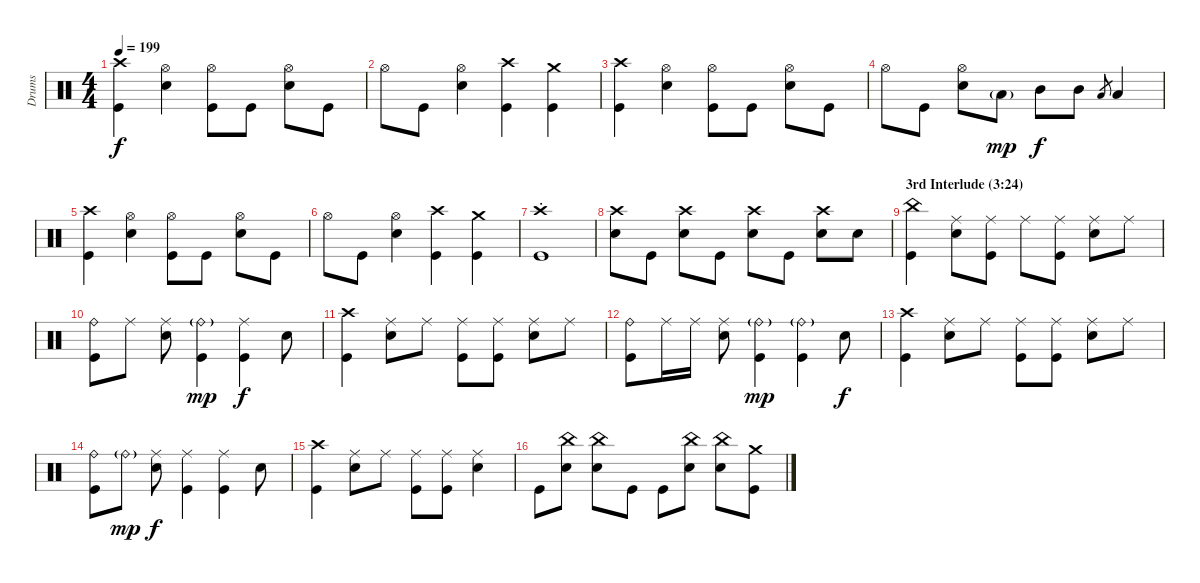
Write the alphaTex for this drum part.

\track ("Drums" "Drums") {instrument percussion}
\staff {score}
\articulation defaults
\ts (4 4)
\tempo 199
\clef neutral
\ks c
("Crash high (hit)" "Kick (hit)").4{dy f} ("Hi-Hat (open)" "Snare (hit) 2").4 ("Hi-Hat (open)" "Kick (hit)").8 "Kick (hit)".8 ("Hi-Hat (open)" "Snare (hit) 2").8 "Kick (hit)".8 |
"Hi-Hat (open)".8 "Kick (hit)".8 ("Hi-Hat (open)" "Snare (hit) 2").4 ("Crash high (hit)" "Kick (hit)").4 ("Crash medium (hit)" "Kick (hit)").4 |
("Crash high (hit)" "Kick (hit)").4 ("Hi-Hat (open)" "Snare (hit) 2").4 ("Hi-Hat (open)" "Kick (hit)").8 "Kick (hit)".8 ("Hi-Hat (open)" "Snare (hit) 2").8 "Kick (hit)".8 |
"Hi-Hat (open)".8 "Kick (hit)".8 ("Hi-Hat (open)" "Snare (hit) 2").8 "Low Tom (hit)"{g}.8{dy mp} "Mid Tom (hit)".8{dy f} "Mid Tom (hit)".8 "Low Tom (hit)".8{gr} "Low Tom (hit)".4 |
("Crash high (hit)" "Kick (hit)").4 ("Hi-Hat (open)" "Snare (hit) 2").4 ("Hi-Hat (open)" "Kick (hit)").8 "Kick (hit)".8 ("Hi-Hat (open)" "Snare (hit) 2").8 "Kick (hit)".8 |
"Hi-Hat (open)".8 "Kick (hit)".8 ("Hi-Hat (open)" "Snare (hit) 2").4 ("Crash high (hit)" "Kick (hit)").4 ("Crash medium (hit)" "Kick (hit)").4 |
("Crash high (hit)"{st} "Kick (hit)").1 |
("Crash high (hit)" "Snare (hit) 2").8 "Kick (hit)".8 ("Crash high (hit)" "Snare (hit) 2").8 "Kick (hit)".8 ("Crash high (hit)" "Snare (hit) 2").8 "Kick (hit)".8 ("Crash high (hit)" "Snare (hit) 2").8 "Snare (hit) 2".8 |
\section ("" "3rd Interlude (3:24)")
("China (hit)" "Kick (hit)").4 ("Ride (middle)" "Snare (hit) 2").8 ("Ride (middle)" "Kick (hit)").8 "Ride (middle)".8 ("Ride (middle)" "Kick (hit)").8 ("Ride (middle)" "Snare (hit) 2").8 "Ride (middle)".8 |
("Ride (bell)" "Kick (hit)").8 "Ride (middle)".8 ("Ride (middle)" "Snare (hit) 2").8 ("Ride (bell)"{g} "Kick (hit)").4{dy mp} ("Ride (middle)" "Kick (hit)").4{dy f} "Snare (hit) 2".8 |
("Crash high (hit)" "Kick (hit)").4 ("Ride (middle)" "Snare (hit) 2").8 "Ride (middle)".8 ("Ride (middle)" "Kick (hit)").8 ("Ride (middle)" "Kick (hit)").8 ("Ride (middle)" "Snare (hit) 2").8 "Ride (middle)".8 |
("Ride (bell)" "Kick (hit)").8 "Ride (middle)".16 "Ride (middle)".16 ("Ride (middle)" "Snare (hit) 2").8 ("Ride (bell)"{g} "Kick (hit)").4{dy mp} ("Ride (bell)"{g} "Kick (hit)").4 "Snare (hit) 2".8{dy f} |
("Crash high (hit)" "Kick (hit)").4 ("Ride (middle)" "Snare (hit) 2").8 "Ride (middle)".8 ("Ride (middle)" "Kick (hit)").8 ("Ride (middle)" "Kick (hit)").8 ("Ride (middle)" "Snare (hit) 2").8 "Ride (middle)".8 |
("Ride (bell)" "Kick (hit)").8 "Ride (bell)"{g}.8{dy mp} ("Ride (middle)" "Snare (hit) 2").8{dy f} ("Ride (middle)" "Kick (hit)").4 ("Ride (middle)" "Kick (hit)").4 "Snare (hit) 2".8 |
("Crash high (hit)" "Kick (hit)").4 ("Ride (middle)" "Snare (hit) 2").8 "Ride (middle)".8 ("Ride (middle)" "Kick (hit)").8 ("Ride (middle)" "Kick (hit)").8 ("Ride (middle)" "Snare (hit) 2").4 |
"Kick (hit)".8 ("China (hit)" "Snare (hit) 2").8 ("China (hit)" "Snare (hit) 2").8 "Kick (hit)".8 "Kick (hit)".8 ("China (hit)" "Snare (hit) 2").8 ("China (hit)" "Snare (hit) 2").8 ("Crash medium (hit)" "Kick (hit)").8
